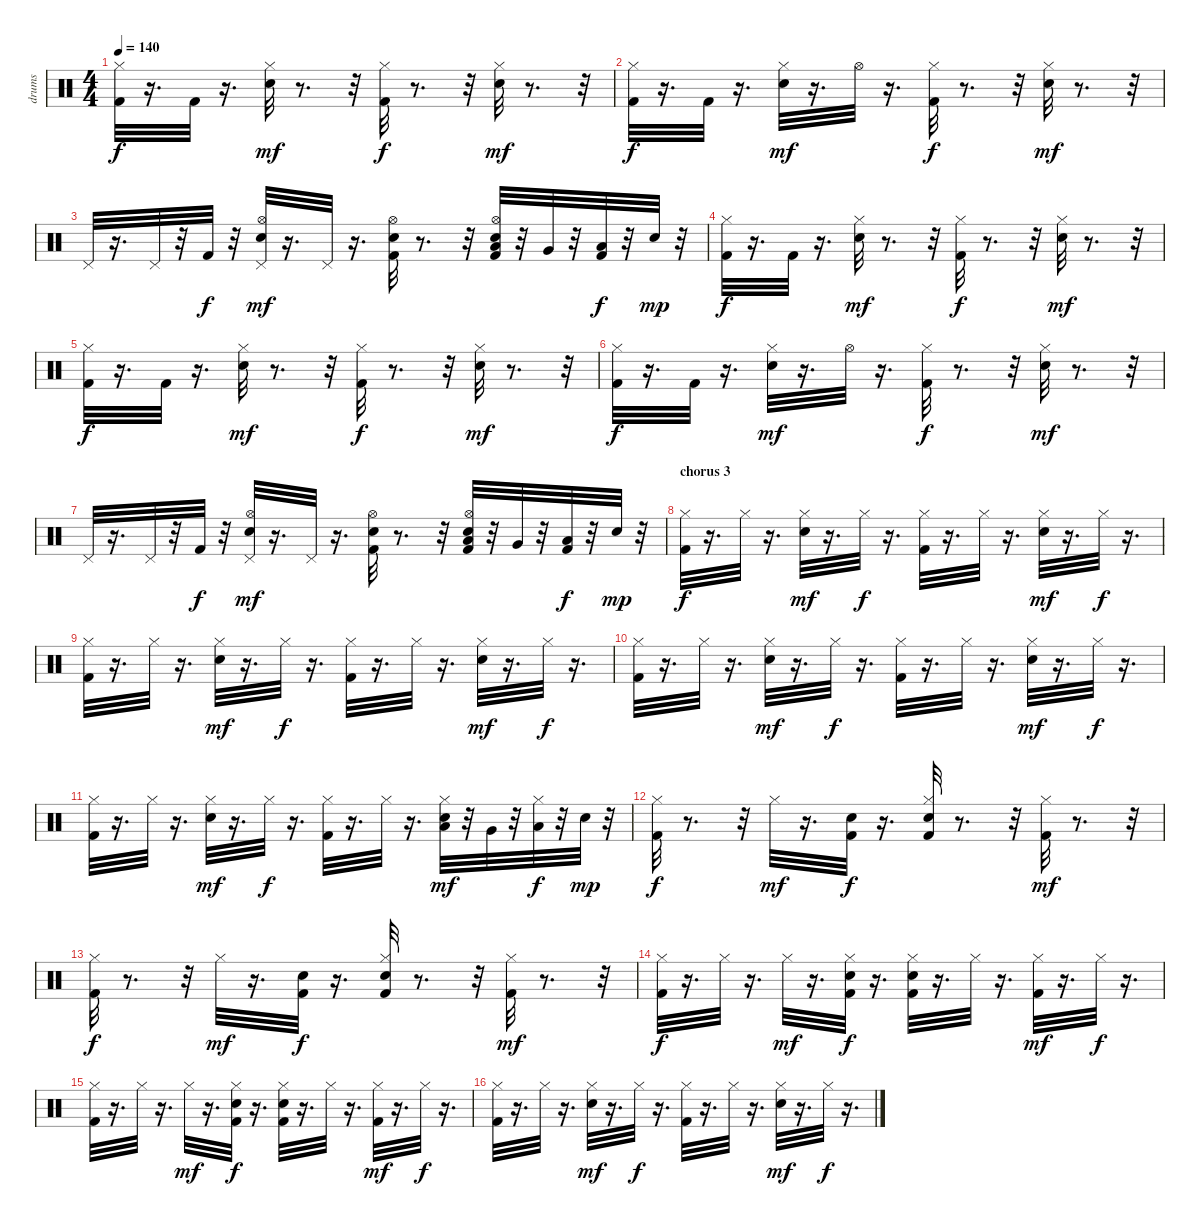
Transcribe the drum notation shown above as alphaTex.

\track ("drums" "drums") {instrument percussion}
\staff {score}
\articulation defaults
\ts (4 4)
\tempo 140
\clef neutral
\ks c
("Kick (hit) 2" "Hi-Hat (closed)").32{dy f} r.16{d} "Kick (hit) 2".32 r.16{d} ("Snare (hit) 2" "Hi-Hat (closed)").32{dy mf} r.8{d} r.32 ("Kick (hit) 2" "Hi-Hat (closed)").32{dy f} r.8{d} r.32 ("Snare (hit) 2" "Hi-Hat (closed)").32{dy mf} r.8{d} r.32 |
("Kick (hit) 2" "Hi-Hat (closed)").32{dy f} r.16{d} "Kick (hit) 2".32 r.16{d} ("Snare (hit) 2" "Hi-Hat (closed)").32{dy mf} r.16{d} "Hi-Hat (open)".32 r.16{d} ("Kick (hit) 2" "Hi-Hat (closed)").32{dy f} r.8{d} r.32 ("Snare (hit) 2" "Hi-Hat (closed)").32{dy mf} r.8{d} r.32 |
"Pedal Hi-Hat (hit)".32 r.16{d} "Pedal Hi-Hat (hit)".32 r.32 "Kick (hit) 2".32{dy f} r.32 ("Snare (hit) 2" "Pedal Hi-Hat (hit)" "Hi-Hat (open)").32{dy mf} r.16{d} "Pedal Hi-Hat (hit)".32 r.16{d} ("Kick (hit) 2" "Snare (hit) 2" "Hi-Hat (open)").32 r.8{d} r.32 ("Kick (hit) 2" "Snare (hit) 2" "Low Tom (hit)" "Hi-Hat (open)").32 r.32 "Very Low Tom (hit)".32 r.32 ("Kick (hit) 2" "Low Floor Tom (hit)").32{dy f} r.32 "Electric Snare (hit)".32{dy mp} r.32 |
("Kick (hit) 2" "Hi-Hat (closed)").32{dy f} r.16{d} "Kick (hit) 2".32 r.16{d} ("Snare (hit) 2" "Hi-Hat (closed)").32{dy mf} r.8{d} r.32 ("Kick (hit) 2" "Hi-Hat (closed)").32{dy f} r.8{d} r.32 ("Snare (hit) 2" "Hi-Hat (closed)").32{dy mf} r.8{d} r.32 |
("Kick (hit) 2" "Hi-Hat (closed)").32{dy f} r.16{d} "Kick (hit) 2".32 r.16{d} ("Snare (hit) 2" "Hi-Hat (closed)").32{dy mf} r.8{d} r.32 ("Kick (hit) 2" "Hi-Hat (closed)").32{dy f} r.8{d} r.32 ("Snare (hit) 2" "Hi-Hat (closed)").32{dy mf} r.8{d} r.32 |
("Kick (hit) 2" "Hi-Hat (closed)").32{dy f} r.16{d} "Kick (hit) 2".32 r.16{d} ("Snare (hit) 2" "Hi-Hat (closed)").32{dy mf} r.16{d} "Hi-Hat (open)".32 r.16{d} ("Kick (hit) 2" "Hi-Hat (closed)").32{dy f} r.8{d} r.32 ("Snare (hit) 2" "Hi-Hat (closed)").32{dy mf} r.8{d} r.32 |
"Pedal Hi-Hat (hit)".32 r.16{d} "Pedal Hi-Hat (hit)".32 r.32 "Kick (hit) 2".32{dy f} r.32 ("Snare (hit) 2" "Pedal Hi-Hat (hit)" "Hi-Hat (open)").32{dy mf} r.16{d} "Pedal Hi-Hat (hit)".32 r.16{d} ("Kick (hit) 2" "Snare (hit) 2" "Hi-Hat (open)").32 r.8{d} r.32 ("Kick (hit) 2" "Snare (hit) 2" "Low Tom (hit)" "Hi-Hat (open)").32 r.32 "Very Low Tom (hit)".32 r.32 ("Kick (hit) 2" "Low Floor Tom (hit)").32{dy f} r.32 "Electric Snare (hit)".32{dy mp} r.32 |
\section ("" "chorus 3")
("Kick (hit) 2" "Hi-Hat (closed)").32{dy f} r.16{d} "Hi-Hat (closed)".32 r.16{d} ("Snare (hit) 2" "Hi-Hat (closed)").32{dy mf} r.16{d} "Hi-Hat (closed)".32{dy f} r.16{d} ("Kick (hit) 2" "Hi-Hat (closed)").32 r.16{d} "Hi-Hat (closed)".32 r.16{d} ("Snare (hit) 2" "Hi-Hat (closed)").32{dy mf} r.16{d} "Hi-Hat (closed)".32{dy f} r.16{d} |
("Kick (hit) 2" "Hi-Hat (closed)").32 r.16{d} "Hi-Hat (closed)".32 r.16{d} ("Snare (hit) 2" "Hi-Hat (closed)").32{dy mf} r.16{d} "Hi-Hat (closed)".32{dy f} r.16{d} ("Kick (hit) 2" "Hi-Hat (closed)").32 r.16{d} "Hi-Hat (closed)".32 r.16{d} ("Snare (hit) 2" "Hi-Hat (closed)").32{dy mf} r.16{d} "Hi-Hat (closed)".32{dy f} r.16{d} |
("Kick (hit) 2" "Hi-Hat (closed)").32 r.16{d} "Hi-Hat (closed)".32 r.16{d} ("Snare (hit) 2" "Hi-Hat (closed)").32{dy mf} r.16{d} "Hi-Hat (closed)".32{dy f} r.16{d} ("Kick (hit) 2" "Hi-Hat (closed)").32 r.16{d} "Hi-Hat (closed)".32 r.16{d} ("Snare (hit) 2" "Hi-Hat (closed)").32{dy mf} r.16{d} "Hi-Hat (closed)".32{dy f} r.16{d} |
("Kick (hit) 2" "Hi-Hat (closed)").32 r.16{d} "Hi-Hat (closed)".32 r.16{d} ("Snare (hit) 2" "Hi-Hat (closed)").32{dy mf} r.16{d} "Hi-Hat (closed)".32{dy f} r.16{d} ("Kick (hit) 2" "Hi-Hat (closed)").32 r.16{d} "Hi-Hat (closed)".32 r.16{d} ("Snare (hit) 2" "Hi-Hat (closed)" "Low Tom (hit)").32{dy mf} r.32 "Very Low Tom (hit)".32 r.32 ("Low Floor Tom (hit)" "Hi-Hat (closed)").32{dy f} r.32 "Electric Snare (hit)".32{dy mp} r.32 |
("Kick (hit) 2" "Hi-Hat (closed)").32{dy f} r.8{d} r.32 "Hi-Hat (closed)".32{dy mf} r.16{d} ("Kick (hit) 2" "Snare (hit) 2").32{dy f} r.16{d} ("Kick (hit) 2" "Snare (hit) 2" "Hi-Hat (closed)").32 r.8{d} r.32 ("Kick (hit) 2" "Hi-Hat (closed)").32{dy mf} r.8{d} r.32 |
("Kick (hit) 2" "Hi-Hat (closed)").32{dy f} r.8{d} r.32 "Hi-Hat (closed)".32{dy mf} r.16{d} ("Kick (hit) 2" "Snare (hit) 2").32{dy f} r.16{d} ("Kick (hit) 2" "Snare (hit) 2" "Hi-Hat (closed)").32 r.8{d} r.32 ("Kick (hit) 2" "Hi-Hat (closed)").32{dy mf} r.8{d} r.32 |
("Kick (hit) 2" "Hi-Hat (closed)").32{dy f} r.16{d} "Hi-Hat (closed)".32 r.16{d} "Hi-Hat (closed)".32{dy mf} r.16{d} ("Kick (hit) 2" "Snare (hit) 2" "Hi-Hat (closed)").32{dy f} r.16{d} ("Kick (hit) 2" "Snare (hit) 2" "Hi-Hat (closed)").32 r.16{d} "Hi-Hat (closed)".32 r.16{d} ("Kick (hit) 2" "Hi-Hat (closed)").32{dy mf} r.16{d} "Hi-Hat (closed)".32{dy f} r.16{d} |
("Kick (hit) 2" "Hi-Hat (closed)").32 r.16{d} "Hi-Hat (closed)".32 r.16{d} "Hi-Hat (closed)".32{dy mf} r.16{d} ("Kick (hit) 2" "Snare (hit) 2" "Hi-Hat (closed)").32{dy f} r.16{d} ("Kick (hit) 2" "Snare (hit) 2" "Hi-Hat (closed)").32 r.16{d} "Hi-Hat (closed)".32 r.16{d} ("Kick (hit) 2" "Hi-Hat (closed)").32{dy mf} r.16{d} "Hi-Hat (closed)".32{dy f} r.16{d} |
("Kick (hit) 2" "Hi-Hat (closed)").32 r.16{d} "Hi-Hat (closed)".32 r.16{d} ("Snare (hit) 2" "Hi-Hat (closed)").32{dy mf} r.16{d} "Hi-Hat (closed)".32{dy f} r.16{d} ("Kick (hit) 2" "Hi-Hat (closed)").32 r.16{d} "Hi-Hat (closed)".32 r.16{d} ("Snare (hit) 2" "Hi-Hat (closed)").32{dy mf} r.16{d} "Hi-Hat (closed)".32{dy f} r.16{d}
